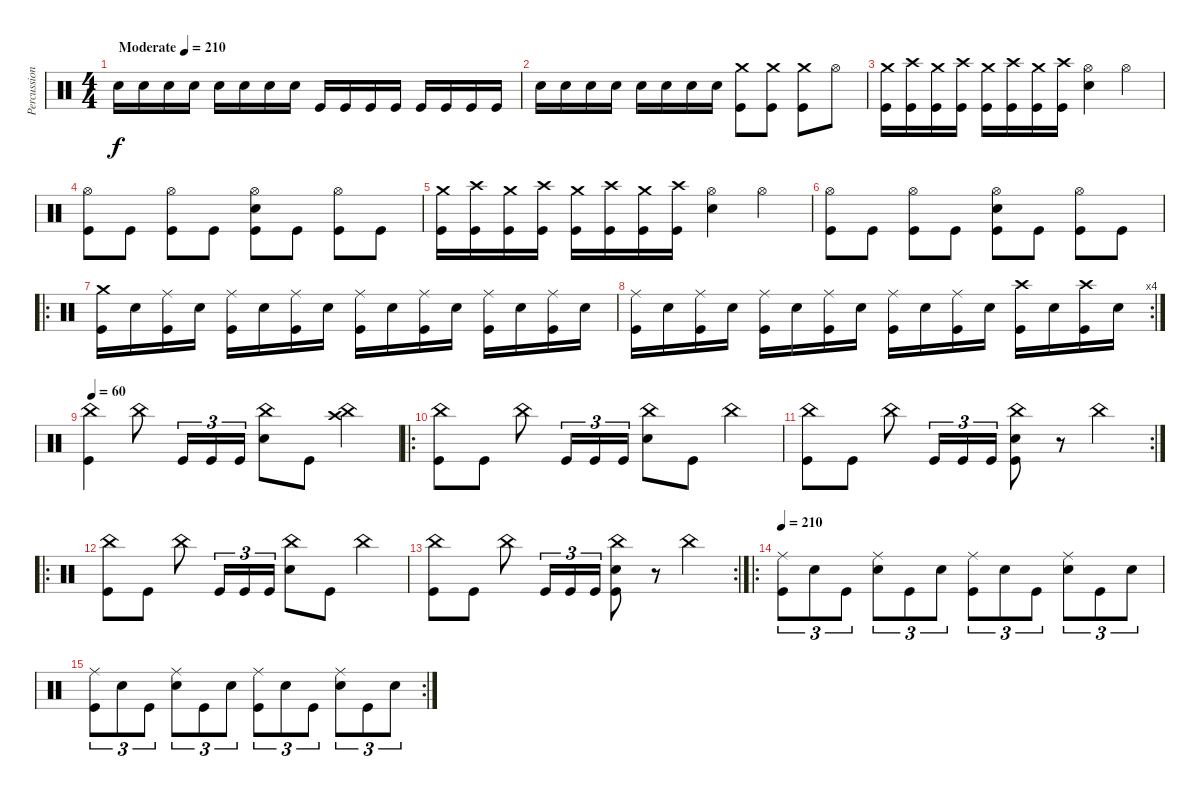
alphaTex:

\track ("Percussion" "Percussion") {instrument percussion}
\staff {score}
\articulation defaults
\ts (4 4)
\tempo (210 "Moderate")
\clef neutral
\ks c "Snare (hit) 2".16{dy f} "Snare (hit) 2".16 "Snare (hit) 2".16 "Snare (hit) 2".16 "Snare (hit) 2".16 "Snare (hit) 2".16 "Snare (hit) 2".16 "Snare (hit) 2".16 "Kick (hit)".16 "Kick (hit)".16 "Kick (hit)".16 "Kick (hit)".16 "Kick (hit)".16 "Kick (hit)".16 "Kick (hit)".16 "Kick (hit)".16
|
"Snare (hit) 2".16 "Snare (hit) 2".16 "Snare (hit) 2".16 "Snare (hit) 2".16 "Snare (hit) 2".16 "Snare (hit) 2".16 "Snare (hit) 2".16 "Snare (hit) 2".16 ("Crash medium (hit)" "Kick (hit)").8 ("Crash medium (hit)" "Kick (hit)").8 ("Crash medium (hit)" "Kick (hit)").8 "Hi-Hat (open)".8 |
("Crash medium (hit)" "Kick (hit)").16 ("Crash high (hit)" "Kick (hit)").16 ("Crash medium (hit)" "Kick (hit)").16 ("Crash high (hit)" "Kick (hit)").16 ("Crash medium (hit)" "Kick (hit)").16 ("Crash high (hit)" "Kick (hit)").16 ("Crash medium (hit)" "Kick (hit)").16 ("Crash high (hit)" "Kick (hit)").16 ("Hi-Hat (open)" "Snare (hit) 2").4 "Hi-Hat (open)".4 |
("Hi-Hat (open)" "Kick (hit)").8 "Kick (hit)".8 ("Hi-Hat (open)" "Kick (hit)").8 "Kick (hit)".8 ("Hi-Hat (open)" "Snare (hit) 2" "Kick (hit)").8 "Kick (hit)".8 ("Hi-Hat (open)" "Kick (hit)").8 "Kick (hit)".8 |
("Crash medium (hit)" "Kick (hit)").16 ("Crash high (hit)" "Kick (hit)").16 ("Crash medium (hit)" "Kick (hit)").16 ("Crash high (hit)" "Kick (hit)").16 ("Crash medium (hit)" "Kick (hit)").16 ("Crash high (hit)" "Kick (hit)").16 ("Crash medium (hit)" "Kick (hit)").16 ("Crash high (hit)" "Kick (hit)").16 ("Hi-Hat (open)" "Snare (hit) 2").4 "Hi-Hat (open)".4 |
("Hi-Hat (open)" "Kick (hit)").8 "Kick (hit)".8 ("Hi-Hat (open)" "Kick (hit)").8 "Kick (hit)".8 ("Hi-Hat (open)" "Snare (hit) 2" "Kick (hit)").8 "Kick (hit)".8 ("Hi-Hat (open)" "Kick (hit)").8 "Kick (hit)".8 |
\ro
("Crash medium (hit)" "Kick (hit)").16 "Snare (hit) 2".16 ("Ride (middle)" "Kick (hit)").16 "Snare (hit) 2".16 ("Ride (middle)" "Kick (hit)").16 "Snare (hit) 2".16 ("Ride (middle)" "Kick (hit)").16 "Snare (hit) 2".16 ("Ride (middle)" "Kick (hit)").16 "Snare (hit) 2".16 ("Ride (middle)" "Kick (hit)").16 "Snare (hit) 2".16 ("Ride (middle)" "Kick (hit)").16 "Snare (hit) 2".16 ("Ride (middle)" "Kick (hit)").16 "Snare (hit) 2".16 |
\rc 4
("Ride (middle)" "Kick (hit)").16 "Snare (hit) 2".16 ("Ride (middle)" "Kick (hit)").16 "Snare (hit) 2".16 ("Ride (middle)" "Kick (hit)").16 "Snare (hit) 2".16 ("Ride (middle)" "Kick (hit)").16 "Snare (hit) 2".16 ("Ride (middle)" "Kick (hit)").16 "Snare (hit) 2".16 ("Ride (middle)" "Kick (hit)").16 "Snare (hit) 2".16 ("Crash high (hit)" "Kick (hit)").16 "Snare (hit) 2".16 ("Crash high (hit)" "Kick (hit)").16 "Snare (hit) 2".16 |
\tempo 60
("China (hit)" "Kick (hit)").4 "China (hit)".8 "Kick (hit)".16{tu (3 2)} "Kick (hit)".16{tu (3 2)} "Kick (hit)".16{tu (3 2)} ("China (hit)" "Snare (hit) 2").8 "Kick (hit)".8 ("China (hit)" "Crash high (hit)").4 |
\ro
("China (hit)" "Kick (hit)").8 "Kick (hit)".8 "China (hit)".8 "Kick (hit)".16{tu (3 2)} "Kick (hit)".16{tu (3 2)} "Kick (hit)".16{tu (3 2)} ("China (hit)" "Snare (hit) 2").8 "Kick (hit)".8 "China (hit)".4 |
\rc 2
("China (hit)" "Kick (hit)").8 "Kick (hit)".8 "China (hit)".8 "Kick (hit)".16{tu (3 2)} "Kick (hit)".16{tu (3 2)} "Kick (hit)".16{tu (3 2)} ("China (hit)" "Snare (hit) 2" "Kick (hit)").8 r.8 "China (hit)".4 |
\ro
("China (hit)" "Kick (hit)").8 "Kick (hit)".8 "China (hit)".8 "Kick (hit)".16{tu (3 2)} "Kick (hit)".16{tu (3 2)} "Kick (hit)".16{tu (3 2)} ("China (hit)" "Snare (hit) 2").8 "Kick (hit)".8 "China (hit)".4 |
\rc 2
("China (hit)" "Kick (hit)").8 "Kick (hit)".8 "China (hit)".8 "Kick (hit)".16{tu (3 2)} "Kick (hit)".16{tu (3 2)} "Kick (hit)".16{tu (3 2)} ("China (hit)" "Snare (hit) 2" "Kick (hit)").8 r.8 "China (hit)".4 |
\ro
\tempo 210
("Ride (middle)" "Kick (hit)").8{tu (3 2)} "Snare (hit) 2".8{tu (3 2)} "Kick (hit)".8{tu (3 2)} ("Ride (middle)" "Snare (hit) 2").8{tu (3 2)} "Kick (hit)".8{tu (3 2)} "Snare (hit) 2".8{tu (3 2)} ("Ride (middle)" "Kick (hit)").8{tu (3 2)} "Snare (hit) 2".8{tu (3 2)} "Kick (hit)".8{tu (3 2)} ("Ride (middle)" "Snare (hit) 2").8{tu (3 2)} "Kick (hit)".8{tu (3 2)} "Snare (hit) 2".8{tu (3 2)} |
\rc 2
("Ride (middle)" "Kick (hit)").8{tu (3 2)} "Snare (hit) 2".8{tu (3 2)} "Kick (hit)".8{tu (3 2)} ("Ride (middle)" "Snare (hit) 2").8{tu (3 2)} "Kick (hit)".8{tu (3 2)} "Snare (hit) 2".8{tu (3 2)} ("Ride (middle)" "Kick (hit)").8{tu (3 2)} "Snare (hit) 2".8{tu (3 2)} "Kick (hit)".8{tu (3 2)} ("Ride (middle)" "Snare (hit) 2").8{tu (3 2)} "Kick (hit)".8{tu (3 2)} "Snare (hit) 2".8{tu (3 2)}
